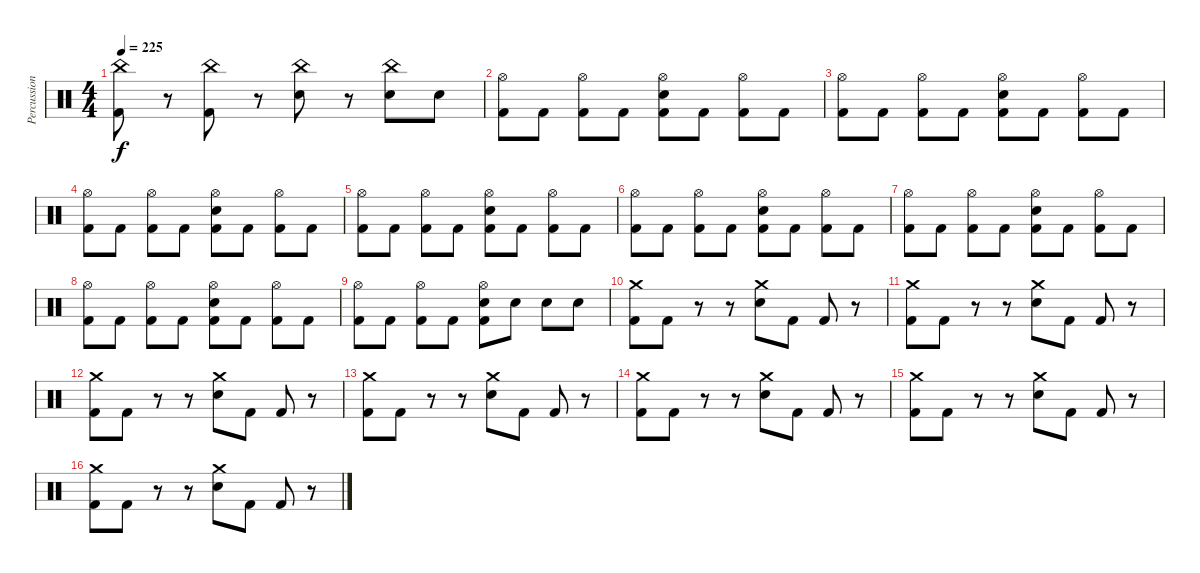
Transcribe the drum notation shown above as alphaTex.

\track ("Percussions" "Percussion") {instrument percussion}
\staff {score}
\articulation defaults
\ts (4 4)
\tempo 225
\clef neutral
\ks c
("China (hit)" "Kick (hit) 2").8{dy f} r.8 ("China (hit)" "Kick (hit) 2").8 r.8 ("China (hit)" "Electric Snare (hit)").8 r.8 ("China (hit)" "Electric Snare (hit)").8 "Electric Snare (hit)".8 |
("Hi-Hat (open)" "Kick (hit) 2").8 "Kick (hit) 2".8 ("Hi-Hat (open)" "Kick (hit) 2").8 "Kick (hit) 2".8 ("Hi-Hat (open)" "Electric Snare (hit)" "Kick (hit) 2").8 "Kick (hit) 2".8 ("Hi-Hat (open)" "Kick (hit) 2").8 "Kick (hit) 2".8 |
("Hi-Hat (open)" "Kick (hit) 2").8 "Kick (hit) 2".8 ("Hi-Hat (open)" "Kick (hit) 2").8 "Kick (hit) 2".8 ("Hi-Hat (open)" "Electric Snare (hit)" "Kick (hit) 2").8 "Kick (hit) 2".8 ("Hi-Hat (open)" "Kick (hit) 2").8 "Kick (hit) 2".8 |
("Hi-Hat (open)" "Kick (hit) 2").8 "Kick (hit) 2".8 ("Hi-Hat (open)" "Kick (hit) 2").8 "Kick (hit) 2".8 ("Hi-Hat (open)" "Electric Snare (hit)" "Kick (hit) 2").8 "Kick (hit) 2".8 ("Hi-Hat (open)" "Kick (hit) 2").8 "Kick (hit) 2".8 |
("Hi-Hat (open)" "Kick (hit) 2").8 "Kick (hit) 2".8 ("Hi-Hat (open)" "Kick (hit) 2").8 "Kick (hit) 2".8 ("Hi-Hat (open)" "Electric Snare (hit)" "Kick (hit) 2").8 "Kick (hit) 2".8 ("Hi-Hat (open)" "Kick (hit) 2").8 "Kick (hit) 2".8 |
("Hi-Hat (open)" "Kick (hit) 2").8 "Kick (hit) 2".8 ("Hi-Hat (open)" "Kick (hit) 2").8 "Kick (hit) 2".8 ("Hi-Hat (open)" "Electric Snare (hit)" "Kick (hit) 2").8 "Kick (hit) 2".8 ("Hi-Hat (open)" "Kick (hit) 2").8 "Kick (hit) 2".8 |
("Hi-Hat (open)" "Kick (hit) 2").8 "Kick (hit) 2".8 ("Hi-Hat (open)" "Kick (hit) 2").8 "Kick (hit) 2".8 ("Hi-Hat (open)" "Electric Snare (hit)" "Kick (hit) 2").8 "Kick (hit) 2".8 ("Hi-Hat (open)" "Kick (hit) 2").8 "Kick (hit) 2".8 |
("Hi-Hat (open)" "Kick (hit) 2").8 "Kick (hit) 2".8 ("Hi-Hat (open)" "Kick (hit) 2").8 "Kick (hit) 2".8 ("Hi-Hat (open)" "Electric Snare (hit)" "Kick (hit) 2").8 "Kick (hit) 2".8 ("Hi-Hat (open)" "Kick (hit) 2").8 "Kick (hit) 2".8 |
("Hi-Hat (open)" "Kick (hit) 2").8 "Kick (hit) 2".8 ("Hi-Hat (open)" "Kick (hit) 2").8 "Kick (hit) 2".8 ("Hi-Hat (open)" "Electric Snare (hit)" "Kick (hit) 2").8 "Electric Snare (hit)".8 "Electric Snare (hit)".8 "Electric Snare (hit)".8 |
("Crash medium (hit)" "Kick (hit) 2").8 "Kick (hit) 2".8 r.8 r.8 ("Crash medium (hit)" "Electric Snare (hit)").8 "Kick (hit) 2".8 "Kick (hit) 2".8 r.8 |
("Crash medium (hit)" "Kick (hit) 2").8 "Kick (hit) 2".8 r.8 r.8 ("Crash medium (hit)" "Electric Snare (hit)").8 "Kick (hit) 2".8 "Kick (hit) 2".8 r.8 |
("Crash medium (hit)" "Kick (hit) 2").8 "Kick (hit) 2".8 r.8 r.8 ("Crash medium (hit)" "Electric Snare (hit)").8 "Kick (hit) 2".8 "Kick (hit) 2".8 r.8 |
("Crash medium (hit)" "Kick (hit) 2").8 "Kick (hit) 2".8 r.8 r.8 ("Crash medium (hit)" "Electric Snare (hit)").8 "Kick (hit) 2".8 "Kick (hit) 2".8 r.8 |
("Crash medium (hit)" "Kick (hit) 2").8 "Kick (hit) 2".8 r.8 r.8 ("Crash medium (hit)" "Electric Snare (hit)").8 "Kick (hit) 2".8 "Kick (hit) 2".8 r.8 |
("Crash medium (hit)" "Kick (hit) 2").8 "Kick (hit) 2".8 r.8 r.8 ("Crash medium (hit)" "Electric Snare (hit)").8 "Kick (hit) 2".8 "Kick (hit) 2".8 r.8 |
("Crash medium (hit)" "Kick (hit) 2").8 "Kick (hit) 2".8 r.8 r.8 ("Crash medium (hit)" "Electric Snare (hit)").8 "Kick (hit) 2".8 "Kick (hit) 2".8 r.8
